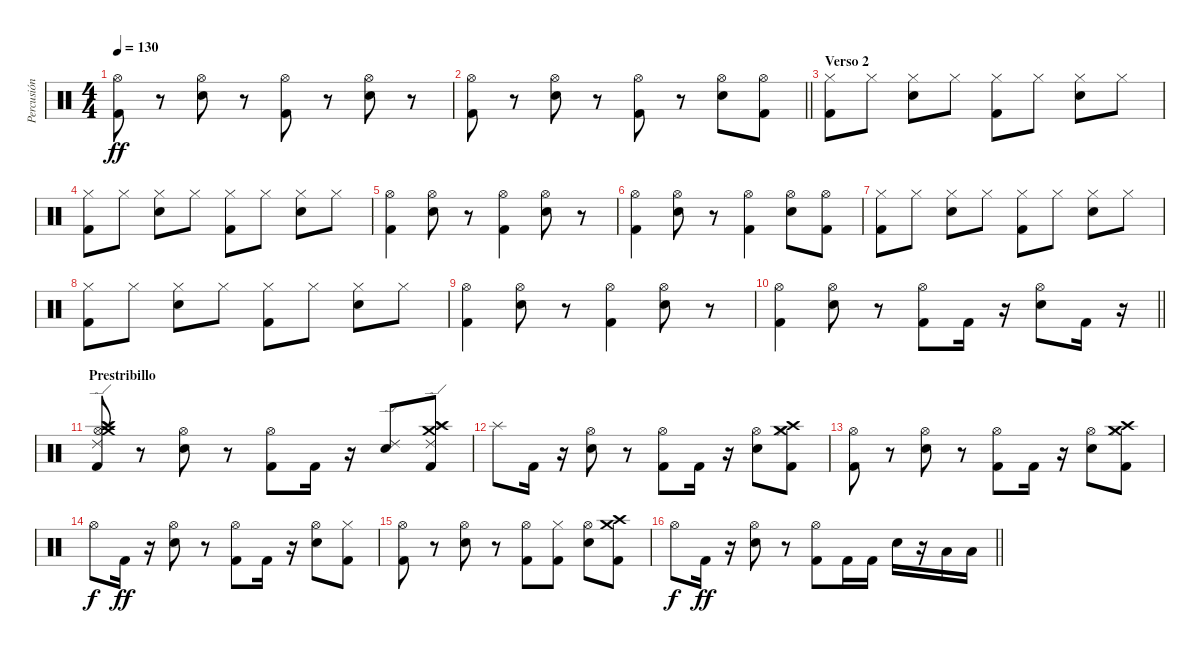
\track ("Percusión" "Percusión") {instrument percussion}
\staff {score}
\articulation defaults
\ts (4 4)
\tempo 130
\clef neutral
\ks c
("Kick (hit) 2" "Hi-Hat (open)").8{dy ff} r.8 ("Snare (hit) 2" "Hi-Hat (open)").8 r.8 ("Kick (hit) 2" "Hi-Hat (open)").8 r.8 ("Snare (hit) 2" "Hi-Hat (open)").8 r.8 |
\barLineRight lightlight
("Kick (hit) 2" "Hi-Hat (open)").8 r.8 ("Snare (hit) 2" "Hi-Hat (open)").8 r.8 ("Kick (hit) 2" "Hi-Hat (open)").8 r.8 ("Snare (hit) 2" "Hi-Hat (open)").8 ("Kick (hit) 2" "Hi-Hat (open)").8 |
\section ("" "Verso 2")
("Kick (hit) 2" "Hi-Hat (closed)").8 "Hi-Hat (closed)".8 ("Snare (hit) 2" "Hi-Hat (closed)").8 "Hi-Hat (closed)".8 ("Kick (hit) 2" "Hi-Hat (closed)").8 "Hi-Hat (closed)".8 ("Snare (hit) 2" "Hi-Hat (closed)").8 "Hi-Hat (closed)".8 |
("Kick (hit) 2" "Hi-Hat (closed)").8 "Hi-Hat (closed)".8 ("Snare (hit) 2" "Hi-Hat (closed)").8 "Hi-Hat (closed)".8 ("Kick (hit) 2" "Hi-Hat (closed)").8 "Hi-Hat (closed)".8 ("Snare (hit) 2" "Hi-Hat (closed)").8 "Hi-Hat (closed)".8 |
("Kick (hit) 2" "Hi-Hat (open)").4 ("Snare (hit) 2" "Hi-Hat (open)").8 r.8 ("Kick (hit) 2" "Hi-Hat (open)").4 ("Snare (hit) 2" "Hi-Hat (open)").8 r.8 |
("Kick (hit) 2" "Hi-Hat (open)").4 ("Snare (hit) 2" "Hi-Hat (open)").8 r.8 ("Kick (hit) 2" "Hi-Hat (open)").4 ("Snare (hit) 2" "Hi-Hat (open)").8 ("Kick (hit) 2" "Hi-Hat (open)").8 |
("Kick (hit) 2" "Hi-Hat (closed)").8 "Hi-Hat (closed)".8 ("Snare (hit) 2" "Hi-Hat (closed)").8 "Hi-Hat (closed)".8 ("Kick (hit) 2" "Hi-Hat (closed)").8 "Hi-Hat (closed)".8 ("Snare (hit) 2" "Hi-Hat (closed)").8 "Hi-Hat (closed)".8 |
("Kick (hit) 2" "Hi-Hat (closed)").8 "Hi-Hat (closed)".8 ("Snare (hit) 2" "Hi-Hat (closed)").8 "Hi-Hat (closed)".8 ("Kick (hit) 2" "Hi-Hat (closed)").8 "Hi-Hat (closed)".8 ("Snare (hit) 2" "Hi-Hat (closed)").8 "Hi-Hat (closed)".8 |
("Kick (hit) 2" "Hi-Hat (open)").4 ("Snare (hit) 2" "Hi-Hat (open)").8 r.8 ("Kick (hit) 2" "Hi-Hat (open)").4 ("Snare (hit) 2" "Hi-Hat (open)").8 r.8 |
\barLineRight lightlight
("Kick (hit) 2" "Hi-Hat (open)").4 ("Snare (hit) 2" "Hi-Hat (open)").8 r.8 ("Kick (hit) 2" "Hi-Hat (open)").8 "Kick (hit) 2".16 r.16 ("Snare (hit) 2" "Hi-Hat (open)").8 "Kick (hit) 2".16 r.16 |
\section ("" "Prestribillo")
("Kick (hit) 2" "Hi-Hat (open)" "Crash high (hit)" "Splash (hit)" "Crash medium (hit)" "Ride (edge) 2").8 r.8 ("Snare (hit) 2" "Hi-Hat (open)").8 r.8 ("Kick (hit) 2" "Hi-Hat (open)").8 "Kick (hit) 2".16 r.16 ("Snare (hit) 2" "Ride (edge) 2").8 ("Kick (hit) 2" "Crash high (hit)" "Splash (hit)" "Crash medium (hit)" "Ride (edge) 2").8 |
"Splash (hit)".8 "Kick (hit) 2".16 r.16 ("Snare (hit) 2" "Hi-Hat (open)").8 r.8 ("Kick (hit) 2" "Hi-Hat (open)").8 "Kick (hit) 2".16 r.16 ("Snare (hit) 2" "Hi-Hat (open)").8 ("Kick (hit) 2" "Hi-Hat (closed)" "Crash high (hit)" "Crash medium (hit)").8 |
("Kick (hit) 2" "Hi-Hat (open)").8 r.8 ("Snare (hit) 2" "Hi-Hat (open)").8 r.8 ("Kick (hit) 2" "Hi-Hat (open)").8 "Kick (hit) 2".16 r.16 ("Snare (hit) 2" "Hi-Hat (open)").8 ("Kick (hit) 2" "Hi-Hat (closed)" "Crash high (hit)" "Crash medium (hit)").8 |
"Hi-Hat (open)".8{dy f} "Kick (hit) 2".16{dy ff} r.16 ("Snare (hit) 2" "Hi-Hat (open)").8 r.8 ("Kick (hit) 2" "Hi-Hat (open)").8 "Kick (hit) 2".16 r.16 ("Snare (hit) 2" "Hi-Hat (open)").8 ("Kick (hit) 2" "Hi-Hat (closed)").8 |
("Kick (hit) 2" "Hi-Hat (open)").8 r.8 ("Snare (hit) 2" "Hi-Hat (open)").8 r.8 ("Kick (hit) 2" "Hi-Hat (open)").8 ("Kick (hit) 2" "Hi-Hat (closed)").8 ("Snare (hit) 2" "Hi-Hat (open)").8 ("Kick (hit) 2" "Crash high (hit)" "Crash medium (hit)").8 |
\barLineRight lightlight "Hi-Hat (open)".8{dy f} "Kick (hit) 2".16{dy ff}
r.16 ("Snare (hit) 2" "Hi-Hat (open)").8 r.8 ("Kick (hit) 2" "Hi-Hat (open)").8 "Kick (hit) 2".16 "Kick (hit) 2".16 "Snare (hit) 2".16 r.16 "Low Floor Tom (hit)".16 "Low Floor Tom (hit)".16
